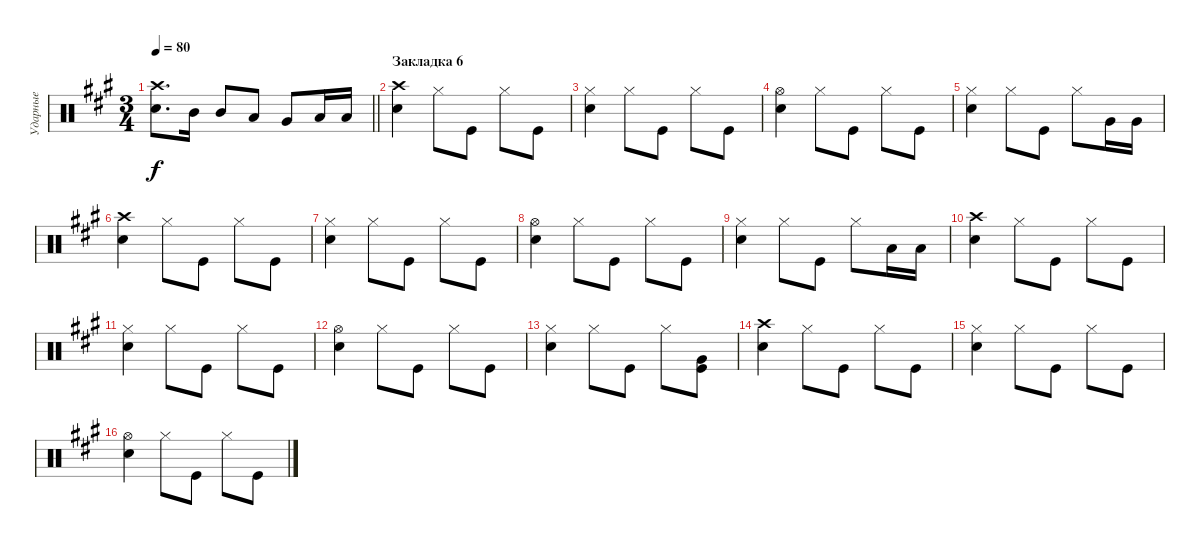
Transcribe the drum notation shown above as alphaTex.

\track ("Ударные" "Ударные") {instrument percussion}
\staff {score}
\articulation defaults
\ts (3 4)
\tempo 80
\clef neutral
\barLineRight lightlight
\ks f#minor
("Snare (hit) 2" "Crash high (hit)").8{d dy f} "Mid Tom (hit)".16 "Mid Tom (hit)".8 "Low Tom (hit)".8 "Very Low Tom (hit)".8 "Low Floor Tom (hit)".16 "Low Floor Tom (hit)".16 |
\section ("" "Закладка 6")
("Snare (hit) 2" "Crash high (hit)").4 "Hi-Hat (closed)".8 "Kick (hit)".8 "Hi-Hat (closed)".8 "Kick (hit)".8 |
("Snare (hit) 2" "Hi-Hat (closed)").4 "Hi-Hat (closed)".8 "Kick (hit)".8 "Hi-Hat (closed)".8 "Kick (hit)".8 |
("Snare (hit) 2" "Hi-Hat (open)").4 "Hi-Hat (closed)".8 "Kick (hit)".8 "Hi-Hat (closed)".8 "Kick (hit)".8 |
("Snare (hit) 2" "Hi-Hat (closed)").4 "Hi-Hat (closed)".8 "Kick (hit)".8 "Hi-Hat (closed)".8 "Very Low Tom (hit)".16 "Very Low Tom (hit)".16 |
("Snare (hit) 2" "Crash high (hit)").4 "Hi-Hat (closed)".8 "Kick (hit)".8 "Hi-Hat (closed)".8 "Kick (hit)".8 |
("Snare (hit) 2" "Hi-Hat (closed)").4 "Hi-Hat (closed)".8 "Kick (hit)".8 "Hi-Hat (closed)".8 "Kick (hit)".8 |
("Snare (hit) 2" "Hi-Hat (open)").4 "Hi-Hat (closed)".8 "Kick (hit)".8 "Hi-Hat (closed)".8 "Kick (hit)".8 |
("Snare (hit) 2" "Hi-Hat (closed)").4 "Hi-Hat (closed)".8 "Kick (hit)".8 "Hi-Hat (closed)".8 "Low Tom (hit)".16 "Low Tom (hit)".16 |
("Snare (hit) 2" "Crash high (hit)").4 "Hi-Hat (closed)".8 "Kick (hit)".8 "Hi-Hat (closed)".8 "Kick (hit)".8 |
("Snare (hit) 2" "Hi-Hat (closed)").4 "Hi-Hat (closed)".8 "Kick (hit)".8 "Hi-Hat (closed)".8 "Kick (hit)".8 |
("Snare (hit) 2" "Hi-Hat (open)").4 "Hi-Hat (closed)".8 "Kick (hit)".8 "Hi-Hat (closed)".8 "Kick (hit)".8 |
("Snare (hit) 2" "Hi-Hat (closed)").4 "Hi-Hat (closed)".8 "Kick (hit)".8 "Hi-Hat (closed)".8 ("Kick (hit)" "Very Low Tom (hit)").8 |
("Snare (hit) 2" "Crash high (hit)").4 "Hi-Hat (closed)".8 "Kick (hit)".8 "Hi-Hat (closed)".8 "Kick (hit)".8 |
("Snare (hit) 2" "Hi-Hat (closed)").4 "Hi-Hat (closed)".8 "Kick (hit)".8 "Hi-Hat (closed)".8 "Kick (hit)".8 |
("Snare (hit) 2" "Hi-Hat (open)").4 "Hi-Hat (closed)".8 "Kick (hit)".8 "Hi-Hat (closed)".8 "Kick (hit)".8
